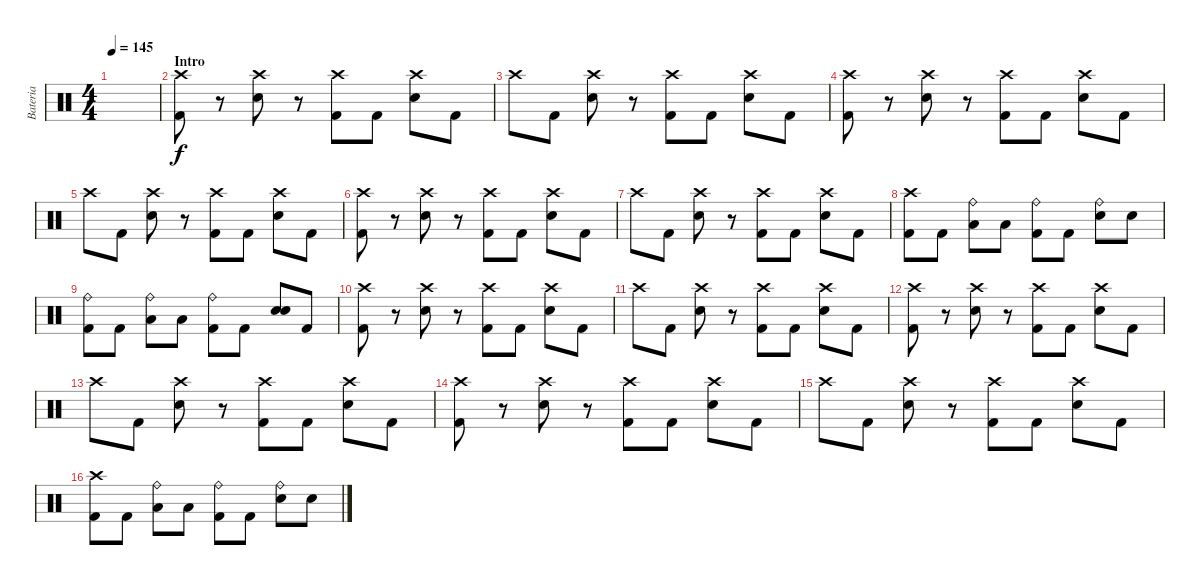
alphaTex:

\track ("Bateria" "Bateria") {instrument percussion}
\staff {score}
\articulation defaults
\ts (4 4)
\tempo 145
\clef neutral
\ks c
|
\section ("" "Intro")
("Crash high (hit)" "Kick (hit) 2").8 r.8 ("Crash high (hit)" "Electric Snare (hit)").8 r.8 ("Crash high (hit)" "Kick (hit) 2").8 "Kick (hit) 2".8 ("Crash high (hit)" "Electric Snare (hit)").8 "Kick (hit) 2".8 |
"Crash high (hit)".8 "Kick (hit) 2".8 ("Crash high (hit)" "Electric Snare (hit)").8 r.8 ("Crash high (hit)" "Kick (hit) 2").8 "Kick (hit) 2".8 ("Crash high (hit)" "Electric Snare (hit)").8 "Kick (hit) 2".8 |
("Crash high (hit)" "Kick (hit) 2").8 r.8 ("Crash high (hit)" "Electric Snare (hit)").8 r.8 ("Crash high (hit)" "Kick (hit) 2").8 "Kick (hit) 2".8 ("Crash high (hit)" "Electric Snare (hit)").8 "Kick (hit) 2".8 |
"Crash high (hit)".8 "Kick (hit) 2".8 ("Crash high (hit)" "Electric Snare (hit)").8 r.8 ("Crash high (hit)" "Kick (hit) 2").8 "Kick (hit) 2".8 ("Crash high (hit)" "Electric Snare (hit)").8 "Kick (hit) 2".8 |
("Crash high (hit)" "Kick (hit) 2").8 r.8 ("Crash high (hit)" "Electric Snare (hit)").8 r.8 ("Crash high (hit)" "Kick (hit) 2").8 "Kick (hit) 2".8 ("Crash high (hit)" "Electric Snare (hit)").8 "Kick (hit) 2".8 |
"Crash high (hit)".8 "Kick (hit) 2".8 ("Crash high (hit)" "Electric Snare (hit)").8 r.8 ("Crash high (hit)" "Kick (hit) 2").8 "Kick (hit) 2".8 ("Crash high (hit)" "Electric Snare (hit)").8 "Kick (hit) 2".8 |
("Crash high (hit)" "Kick (hit) 2").8 "Kick (hit) 2".8 ("Ride (bell)" "Low Tom (hit)").8 "Low Tom (hit)".8 ("Ride (bell)" "Kick (hit) 2").8 "Kick (hit) 2".8 ("Ride (bell)" "Electric Snare (hit)").8 "Electric Snare (hit)".8 |
("Ride (bell)" "Kick (hit) 2").8 "Kick (hit) 2".8 ("Ride (bell)" "Low Tom (hit)").8 "Low Tom (hit)".8 ("Ride (bell)" "Kick (hit) 2").8 "Kick (hit) 2".8 ("Electric Snare (hit)" "Electric Snare (hit)").8 "Kick (hit) 2".8 |
("Crash high (hit)" "Kick (hit) 2").8 r.8 ("Crash high (hit)" "Electric Snare (hit)").8 r.8 ("Crash high (hit)" "Kick (hit) 2").8 "Kick (hit) 2".8 ("Crash high (hit)" "Electric Snare (hit)").8 "Kick (hit) 2".8 |
"Crash high (hit)".8 "Kick (hit) 2".8 ("Crash high (hit)" "Electric Snare (hit)").8 r.8 ("Crash high (hit)" "Kick (hit) 2").8 "Kick (hit) 2".8 ("Crash high (hit)" "Electric Snare (hit)").8 "Kick (hit) 2".8 |
("Crash high (hit)" "Kick (hit) 2").8 r.8 ("Crash high (hit)" "Electric Snare (hit)").8 r.8 ("Crash high (hit)" "Kick (hit) 2").8 "Kick (hit) 2".8 ("Crash high (hit)" "Electric Snare (hit)").8 "Kick (hit) 2".8 |
"Crash high (hit)".8 "Kick (hit) 2".8 ("Crash high (hit)" "Electric Snare (hit)").8 r.8 ("Crash high (hit)" "Kick (hit) 2").8 "Kick (hit) 2".8 ("Crash high (hit)" "Electric Snare (hit)").8 "Kick (hit) 2".8 |
("Crash high (hit)" "Kick (hit) 2").8 r.8 ("Crash high (hit)" "Electric Snare (hit)").8 r.8 ("Crash high (hit)" "Kick (hit) 2").8 "Kick (hit) 2".8 ("Crash high (hit)" "Electric Snare (hit)").8 "Kick (hit) 2".8 |
"Crash high (hit)".8 "Kick (hit) 2".8 ("Crash high (hit)" "Electric Snare (hit)").8 r.8 ("Crash high (hit)" "Kick (hit) 2").8 "Kick (hit) 2".8 ("Crash high (hit)" "Electric Snare (hit)").8 "Kick (hit) 2".8 |
("Crash high (hit)" "Kick (hit) 2").8 "Kick (hit) 2".8 ("Ride (bell)" "Low Tom (hit)").8 "Low Tom (hit)".8 ("Ride (bell)" "Kick (hit) 2").8 "Kick (hit) 2".8 ("Ride (bell)" "Electric Snare (hit)").8 "Electric Snare (hit)".8
